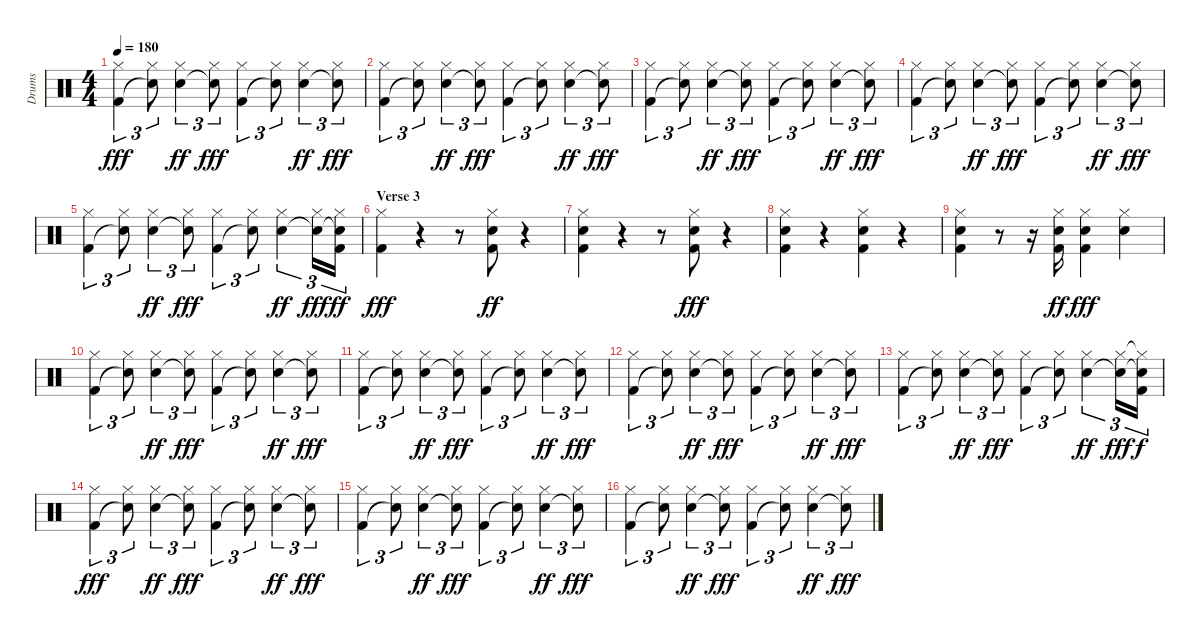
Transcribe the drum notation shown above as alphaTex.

\track ("Drums" "Drums") {instrument percussion}
\staff {score}
\articulation defaults
\ts (4 4)
\tempo 180
\clef neutral
\ks c
("Hi-Hat (closed)" "Kick (hit) 2").4{tu (3 2) dy fff} ("Hi-Hat (closed)" "Snare (hit)"{t}).8{tu (3 2)} ("Hi-Hat (closed)" "Electric Snare (hit)").4{tu (3 2) dy ff} ("Hi-Hat (closed)" "Snare (hit)"{t}).8{tu (3 2) dy fff} ("Hi-Hat (closed)" "Kick (hit) 2").4{tu (3 2)} ("Hi-Hat (closed)" "Snare (hit)"{t}).8{tu (3 2)} ("Hi-Hat (closed)" "Electric Snare (hit)").4{tu (3 2) dy ff} ("Hi-Hat (closed)" "Snare (hit)"{t}).8{tu (3 2) dy fff} |
("Hi-Hat (closed)" "Kick (hit) 2").4{tu (3 2)} ("Hi-Hat (closed)" "Snare (hit)"{t}).8{tu (3 2)} ("Hi-Hat (closed)" "Electric Snare (hit)").4{tu (3 2) dy ff} ("Hi-Hat (closed)" "Snare (hit)"{t}).8{tu (3 2) dy fff} ("Hi-Hat (closed)" "Kick (hit) 2").4{tu (3 2)} ("Hi-Hat (closed)" "Snare (hit)"{t}).8{tu (3 2)} ("Hi-Hat (closed)" "Electric Snare (hit)").4{tu (3 2) dy ff} ("Hi-Hat (closed)" "Snare (hit)"{t}).8{tu (3 2) dy fff} |
("Hi-Hat (closed)" "Kick (hit) 2").4{tu (3 2)} ("Hi-Hat (closed)" "Snare (hit)"{t}).8{tu (3 2)} ("Hi-Hat (closed)" "Electric Snare (hit)").4{tu (3 2) dy ff} ("Hi-Hat (closed)" "Snare (hit)"{t}).8{tu (3 2) dy fff} ("Hi-Hat (closed)" "Kick (hit) 2").4{tu (3 2)} ("Hi-Hat (closed)" "Snare (hit)"{t}).8{tu (3 2)} ("Hi-Hat (closed)" "Electric Snare (hit)").4{tu (3 2) dy ff} ("Hi-Hat (closed)" "Snare (hit)"{t}).8{tu (3 2) dy fff} |
("Hi-Hat (closed)" "Kick (hit) 2").4{tu (3 2)} ("Hi-Hat (closed)" "Snare (hit)"{t}).8{tu (3 2)} ("Hi-Hat (closed)" "Electric Snare (hit)").4{tu (3 2) dy ff} ("Hi-Hat (closed)" "Snare (hit)"{t}).8{tu (3 2) dy fff} ("Hi-Hat (closed)" "Kick (hit) 2").4{tu (3 2)} ("Hi-Hat (closed)" "Snare (hit)"{t}).8{tu (3 2)} ("Hi-Hat (closed)" "Electric Snare (hit)").4{tu (3 2) dy ff} ("Hi-Hat (closed)" "Snare (hit)"{t}).8{tu (3 2) dy fff} |
("Hi-Hat (closed)" "Kick (hit) 2").4{tu (3 2)} ("Hi-Hat (closed)" "Snare (hit)"{t}).8{tu (3 2)} ("Hi-Hat (closed)" "Electric Snare (hit)").4{tu (3 2) dy ff} ("Hi-Hat (closed)" "Snare (hit)"{t}).8{tu (3 2) dy fff} ("Hi-Hat (closed)" "Kick (hit) 2").4{tu (3 2)} ("Hi-Hat (closed)" "Snare (hit)"{t}).8{tu (3 2)} ("Hi-Hat (closed)" "Electric Snare (hit)").4{tu (3 2) dy ff} ("Hi-Hat (closed)" "Snare (hit)"{t}).16{tu (3 2) dy fff} ("Hi-Hat (closed)" "Snare (hit)"{t} "Kick (hit) 2").16{tu (3 2) dy ff} |
\section ("" "Verse 3")
("Hi-Hat (closed)" "Kick (hit) 2").4{dy fff} r.4 r.8 ("Hi-Hat (closed)" "Electric Snare (hit)" "Kick (hit) 2").8{dy ff} r.4 |
("Hi-Hat (closed)" "Electric Snare (hit)" "Kick (hit) 2").4 r.4 r.8 ("Hi-Hat (closed)" "Electric Snare (hit)" "Kick (hit) 2").8{dy fff} r.4 |
("Hi-Hat (closed)" "Electric Snare (hit)" "Kick (hit) 2").4 r.4 ("Hi-Hat (closed)" "Electric Snare (hit)" "Kick (hit) 2").4 r.4 |
("Hi-Hat (closed)" "Electric Snare (hit)" "Kick (hit) 2").4 r.8 r.16 ("Hi-Hat (closed)" "Electric Snare (hit)" "Kick (hit) 2").16{dy ff} ("Hi-Hat (closed)" "Electric Snare (hit)" "Kick (hit) 2").4{dy fff} ("Hi-Hat (closed)" "Electric Snare (hit)").4 |
("Hi-Hat (closed)" "Kick (hit) 2").4{tu (3 2)} ("Hi-Hat (closed)" "Snare (hit)"{t}).8{tu (3 2)} ("Hi-Hat (closed)" "Electric Snare (hit)").4{tu (3 2) dy ff} ("Hi-Hat (closed)" "Snare (hit)"{t}).8{tu (3 2) dy fff} ("Hi-Hat (closed)" "Kick (hit) 2").4{tu (3 2)} ("Hi-Hat (closed)" "Snare (hit)"{t}).8{tu (3 2)} ("Hi-Hat (closed)" "Electric Snare (hit)").4{tu (3 2) dy ff} ("Hi-Hat (closed)" "Snare (hit)"{t}).8{tu (3 2) dy fff} |
("Hi-Hat (closed)" "Kick (hit) 2").4{tu (3 2)} ("Hi-Hat (closed)" "Snare (hit)"{t}).8{tu (3 2)} ("Hi-Hat (closed)" "Electric Snare (hit)").4{tu (3 2) dy ff} ("Hi-Hat (closed)" "Snare (hit)"{t}).8{tu (3 2) dy fff} ("Hi-Hat (closed)" "Kick (hit) 2").4{tu (3 2)} ("Hi-Hat (closed)" "Snare (hit)"{t}).8{tu (3 2)} ("Hi-Hat (closed)" "Electric Snare (hit)").4{tu (3 2) dy ff} ("Hi-Hat (closed)" "Snare (hit)"{t}).8{tu (3 2) dy fff} |
("Hi-Hat (closed)" "Kick (hit) 2").4{tu (3 2)} ("Hi-Hat (closed)" "Snare (hit)"{t}).8{tu (3 2)} ("Hi-Hat (closed)" "Electric Snare (hit)").4{tu (3 2) dy ff} ("Hi-Hat (closed)" "Snare (hit)"{t}).8{tu (3 2) dy fff} ("Hi-Hat (closed)" "Kick (hit) 2").4{tu (3 2)} ("Hi-Hat (closed)" "Snare (hit)"{t}).8{tu (3 2)} ("Hi-Hat (closed)" "Electric Snare (hit)").4{tu (3 2) dy ff} ("Hi-Hat (closed)" "Snare (hit)"{t}).8{tu (3 2) dy fff} |
("Hi-Hat (closed)" "Kick (hit) 2").4{tu (3 2)} ("Hi-Hat (closed)" "Snare (hit)"{t}).8{tu (3 2)} ("Hi-Hat (closed)" "Electric Snare (hit)").4{tu (3 2) dy ff} ("Hi-Hat (closed)" "Snare (hit)"{t}).8{tu (3 2) dy fff} ("Hi-Hat (closed)" "Kick (hit) 2").4{tu (3 2)} ("Hi-Hat (closed)" "Snare (hit)"{t}).8{tu (3 2)} ("Hi-Hat (closed)" "Electric Snare (hit)").4{tu (3 2) dy ff} ("Hi-Hat (closed)" "Snare (hit)"{t}).16{tu (3 2) dy fff} ("Hi-Hat (closed)"{t} "Snare (hit)"{t} "Kick (hit) 2").16{tu (3 2) dy f} |
("Hi-Hat (closed)" "Kick (hit) 2").4{tu (3 2) dy fff} ("Hi-Hat (closed)" "Snare (hit)"{t}).8{tu (3 2)} ("Hi-Hat (closed)" "Electric Snare (hit)").4{tu (3 2) dy ff} ("Hi-Hat (closed)" "Snare (hit)"{t}).8{tu (3 2) dy fff} ("Hi-Hat (closed)" "Kick (hit) 2").4{tu (3 2)} ("Hi-Hat (closed)" "Snare (hit)"{t}).8{tu (3 2)} ("Hi-Hat (closed)" "Electric Snare (hit)").4{tu (3 2) dy ff} ("Hi-Hat (closed)" "Snare (hit)"{t}).8{tu (3 2) dy fff} |
("Hi-Hat (closed)" "Kick (hit) 2").4{tu (3 2)} ("Hi-Hat (closed)" "Snare (hit)"{t}).8{tu (3 2)} ("Hi-Hat (closed)" "Electric Snare (hit)").4{tu (3 2) dy ff} ("Hi-Hat (closed)" "Snare (hit)"{t}).8{tu (3 2) dy fff} ("Hi-Hat (closed)" "Kick (hit) 2").4{tu (3 2)} ("Hi-Hat (closed)" "Snare (hit)"{t}).8{tu (3 2)} ("Hi-Hat (closed)" "Electric Snare (hit)").4{tu (3 2) dy ff} ("Hi-Hat (closed)" "Snare (hit)"{t}).8{tu (3 2) dy fff} |
("Hi-Hat (closed)" "Kick (hit) 2").4{tu (3 2)} ("Hi-Hat (closed)" "Snare (hit)"{t}).8{tu (3 2)} ("Hi-Hat (closed)" "Electric Snare (hit)").4{tu (3 2) dy ff} ("Hi-Hat (closed)" "Snare (hit)"{t}).8{tu (3 2) dy fff} ("Hi-Hat (closed)" "Kick (hit) 2").4{tu (3 2)} ("Hi-Hat (closed)" "Snare (hit)"{t}).8{tu (3 2)} ("Hi-Hat (closed)" "Electric Snare (hit)").4{tu (3 2) dy ff} ("Hi-Hat (closed)" "Snare (hit)"{t}).8{tu (3 2) dy fff}
